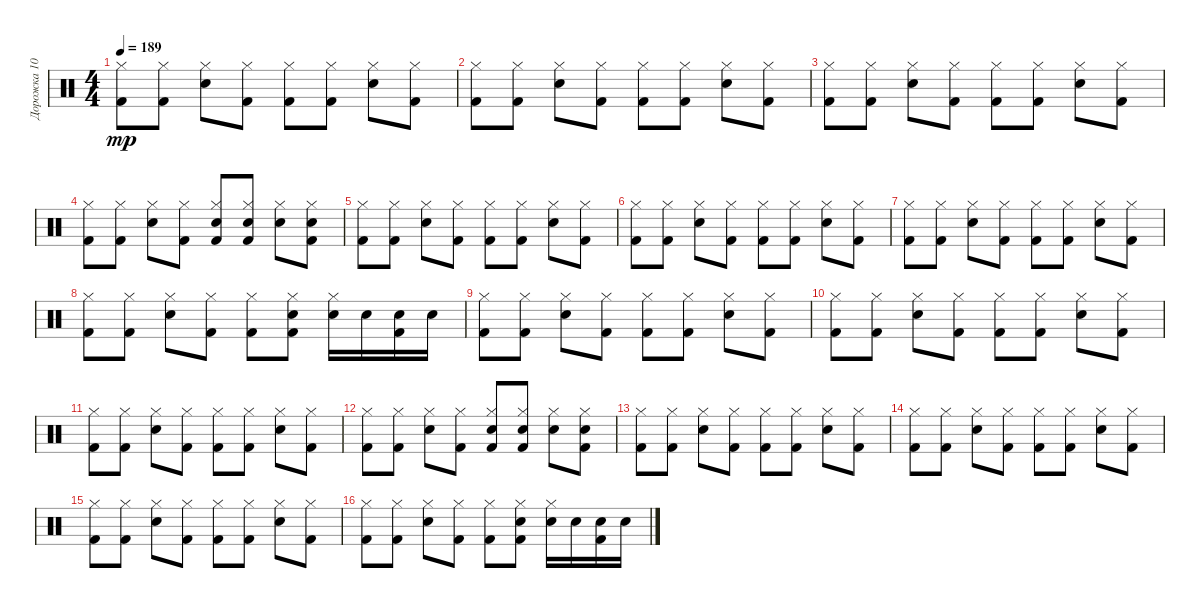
\track ("Дорожка 10" "Дорожка 10") {instrument percussion}
\staff {score}
\articulation defaults
\ts (4 4)
\tempo 189
\clef neutral
\ks c
("Kick (hit) 2" "Hi-Hat (closed)").8{dy mp} ("Kick (hit) 2" "Hi-Hat (closed)").8 ("Snare (hit) 2" "Hi-Hat (closed)").8 ("Kick (hit) 2" "Hi-Hat (closed)").8 ("Kick (hit) 2" "Hi-Hat (closed)").8 ("Kick (hit) 2" "Hi-Hat (closed)").8 ("Snare (hit) 2" "Hi-Hat (closed)").8 ("Kick (hit) 2" "Hi-Hat (closed)").8 |
("Kick (hit) 2" "Hi-Hat (closed)").8 ("Kick (hit) 2" "Hi-Hat (closed)").8 ("Snare (hit) 2" "Hi-Hat (closed)").8 ("Kick (hit) 2" "Hi-Hat (closed)").8 ("Kick (hit) 2" "Hi-Hat (closed)").8 ("Kick (hit) 2" "Hi-Hat (closed)").8 ("Snare (hit) 2" "Hi-Hat (closed)").8 ("Kick (hit) 2" "Hi-Hat (closed)").8 |
("Kick (hit) 2" "Hi-Hat (closed)").8 ("Kick (hit) 2" "Hi-Hat (closed)").8 ("Snare (hit) 2" "Hi-Hat (closed)").8 ("Kick (hit) 2" "Hi-Hat (closed)").8 ("Kick (hit) 2" "Hi-Hat (closed)").8 ("Kick (hit) 2" "Hi-Hat (closed)").8 ("Snare (hit) 2" "Hi-Hat (closed)").8 ("Kick (hit) 2" "Hi-Hat (closed)").8 |
("Kick (hit) 2" "Hi-Hat (closed)").8 ("Kick (hit) 2" "Hi-Hat (closed)").8 ("Snare (hit) 2" "Hi-Hat (closed)").8 ("Kick (hit) 2" "Hi-Hat (closed)").8 ("Kick (hit) 2" "Snare (hit) 2" "Hi-Hat (closed)").8 ("Kick (hit) 2" "Snare (hit) 2" "Hi-Hat (closed)").8 ("Snare (hit) 2" "Hi-Hat (closed)").8 ("Kick (hit) 2" "Snare (hit) 2" "Hi-Hat (closed)").8 |
("Kick (hit) 2" "Hi-Hat (closed)").8 ("Kick (hit) 2" "Hi-Hat (closed)").8 ("Snare (hit) 2" "Hi-Hat (closed)").8 ("Kick (hit) 2" "Hi-Hat (closed)").8 ("Kick (hit) 2" "Hi-Hat (closed)").8 ("Kick (hit) 2" "Hi-Hat (closed)").8 ("Snare (hit) 2" "Hi-Hat (closed)").8 ("Kick (hit) 2" "Hi-Hat (closed)").8 |
("Kick (hit) 2" "Hi-Hat (closed)").8 ("Kick (hit) 2" "Hi-Hat (closed)").8 ("Snare (hit) 2" "Hi-Hat (closed)").8 ("Kick (hit) 2" "Hi-Hat (closed)").8 ("Kick (hit) 2" "Hi-Hat (closed)").8 ("Kick (hit) 2" "Hi-Hat (closed)").8 ("Snare (hit) 2" "Hi-Hat (closed)").8 ("Kick (hit) 2" "Hi-Hat (closed)").8 |
("Kick (hit) 2" "Hi-Hat (closed)").8 ("Kick (hit) 2" "Hi-Hat (closed)").8 ("Snare (hit) 2" "Hi-Hat (closed)").8 ("Kick (hit) 2" "Hi-Hat (closed)").8 ("Kick (hit) 2" "Hi-Hat (closed)").8 ("Kick (hit) 2" "Hi-Hat (closed)").8 ("Snare (hit) 2" "Hi-Hat (closed)").8 ("Kick (hit) 2" "Hi-Hat (closed)").8 |
("Kick (hit) 2" "Hi-Hat (closed)").8 ("Kick (hit) 2" "Hi-Hat (closed)").8 ("Snare (hit) 2" "Hi-Hat (closed)").8 ("Kick (hit) 2" "Hi-Hat (closed)").8 ("Kick (hit) 2" "Hi-Hat (closed)").8 ("Kick (hit) 2" "Snare (hit) 2" "Hi-Hat (closed)").8 ("Snare (hit) 2" "Hi-Hat (closed)").16 "Snare (hit) 2".16 ("Kick (hit) 2" "Snare (hit) 2").16 "Snare (hit) 2".16 |
("Kick (hit) 2" "Hi-Hat (closed)").8 ("Kick (hit) 2" "Hi-Hat (closed)").8 ("Snare (hit) 2" "Hi-Hat (closed)").8 ("Kick (hit) 2" "Hi-Hat (closed)").8 ("Kick (hit) 2" "Hi-Hat (closed)").8 ("Kick (hit) 2" "Hi-Hat (closed)").8 ("Snare (hit) 2" "Hi-Hat (closed)").8 ("Kick (hit) 2" "Hi-Hat (closed)").8 |
("Kick (hit) 2" "Hi-Hat (closed)").8 ("Kick (hit) 2" "Hi-Hat (closed)").8 ("Snare (hit) 2" "Hi-Hat (closed)").8 ("Kick (hit) 2" "Hi-Hat (closed)").8 ("Kick (hit) 2" "Hi-Hat (closed)").8 ("Kick (hit) 2" "Hi-Hat (closed)").8 ("Snare (hit) 2" "Hi-Hat (closed)").8 ("Kick (hit) 2" "Hi-Hat (closed)").8 |
("Kick (hit) 2" "Hi-Hat (closed)").8 ("Kick (hit) 2" "Hi-Hat (closed)").8 ("Snare (hit) 2" "Hi-Hat (closed)").8 ("Kick (hit) 2" "Hi-Hat (closed)").8 ("Kick (hit) 2" "Hi-Hat (closed)").8 ("Kick (hit) 2" "Hi-Hat (closed)").8 ("Snare (hit) 2" "Hi-Hat (closed)").8 ("Kick (hit) 2" "Hi-Hat (closed)").8 |
("Kick (hit) 2" "Hi-Hat (closed)").8 ("Kick (hit) 2" "Hi-Hat (closed)").8 ("Snare (hit) 2" "Hi-Hat (closed)").8 ("Kick (hit) 2" "Hi-Hat (closed)").8 ("Kick (hit) 2" "Snare (hit) 2" "Hi-Hat (closed)").8 ("Kick (hit) 2" "Snare (hit) 2" "Hi-Hat (closed)").8 ("Snare (hit) 2" "Hi-Hat (closed)").8 ("Kick (hit) 2" "Snare (hit) 2" "Hi-Hat (closed)").8 |
("Kick (hit) 2" "Hi-Hat (closed)").8 ("Kick (hit) 2" "Hi-Hat (closed)").8 ("Snare (hit) 2" "Hi-Hat (closed)").8 ("Kick (hit) 2" "Hi-Hat (closed)").8 ("Kick (hit) 2" "Hi-Hat (closed)").8 ("Kick (hit) 2" "Hi-Hat (closed)").8 ("Snare (hit) 2" "Hi-Hat (closed)").8 ("Kick (hit) 2" "Hi-Hat (closed)").8 |
("Kick (hit) 2" "Hi-Hat (closed)").8 ("Kick (hit) 2" "Hi-Hat (closed)").8 ("Snare (hit) 2" "Hi-Hat (closed)").8 ("Kick (hit) 2" "Hi-Hat (closed)").8 ("Kick (hit) 2" "Hi-Hat (closed)").8 ("Kick (hit) 2" "Hi-Hat (closed)").8 ("Snare (hit) 2" "Hi-Hat (closed)").8 ("Kick (hit) 2" "Hi-Hat (closed)").8 |
("Kick (hit) 2" "Hi-Hat (closed)").8 ("Kick (hit) 2" "Hi-Hat (closed)").8 ("Snare (hit) 2" "Hi-Hat (closed)").8 ("Kick (hit) 2" "Hi-Hat (closed)").8 ("Kick (hit) 2" "Hi-Hat (closed)").8 ("Kick (hit) 2" "Hi-Hat (closed)").8 ("Snare (hit) 2" "Hi-Hat (closed)").8 ("Kick (hit) 2" "Hi-Hat (closed)").8 |
("Kick (hit) 2" "Hi-Hat (closed)").8 ("Kick (hit) 2" "Hi-Hat (closed)").8 ("Snare (hit) 2" "Hi-Hat (closed)").8 ("Kick (hit) 2" "Hi-Hat (closed)").8 ("Kick (hit) 2" "Hi-Hat (closed)").8 ("Kick (hit) 2" "Snare (hit) 2" "Hi-Hat (closed)").8 ("Snare (hit) 2" "Hi-Hat (closed)").16 "Snare (hit) 2".16 ("Kick (hit) 2" "Snare (hit) 2").16 "Snare (hit) 2".16
